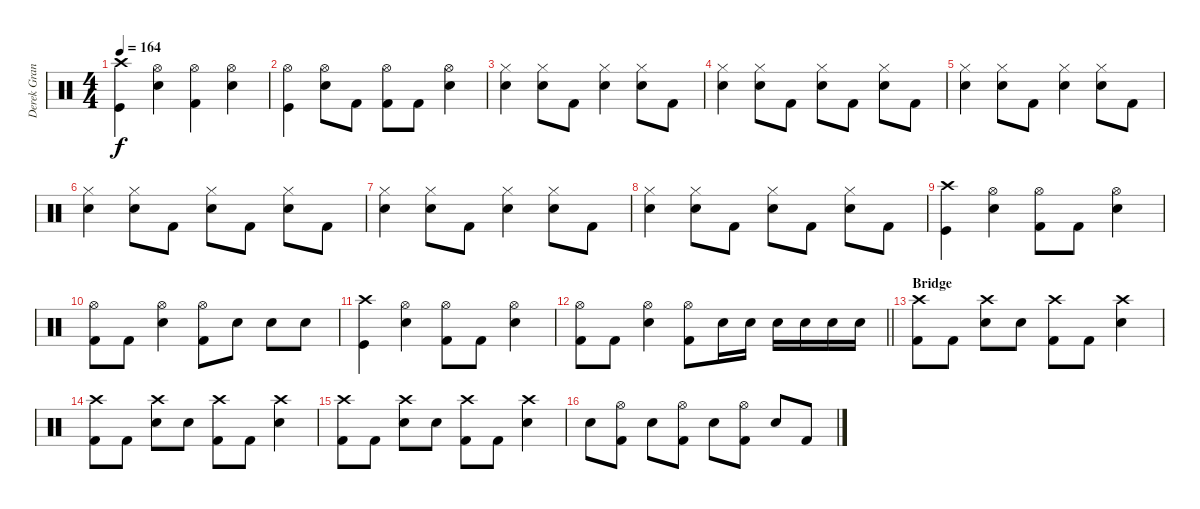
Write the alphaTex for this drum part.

\track ("Derek Grant - Drums" "Derek Gran") {instrument percussion}
\staff {score}
\articulation defaults
\ts (4 4)
\tempo 164
\clef neutral
\ks c
("Crash high (hit)" "Kick (hit)").4{dy f} ("Snare (hit) 2" "Hi-Hat (open)").4 ("Kick (hit) 2" "Hi-Hat (open)").4 ("Snare (hit) 2" "Hi-Hat (open)").4 |
("Hi-Hat (open)" "Kick (hit)").4 ("Snare (hit) 2" "Hi-Hat (open)").8 "Kick (hit) 2".8 ("Kick (hit) 2" "Hi-Hat (open)").8 "Kick (hit) 2".8 ("Snare (hit) 2" "Hi-Hat (open)").4 |
("Hi-Hat (closed)" "Snare (hit) 2").4 ("Hi-Hat (closed)" "Snare (hit) 2").8 "Kick (hit) 2".8 ("Hi-Hat (closed)" "Snare (hit) 2").4 ("Hi-Hat (closed)" "Snare (hit) 2").8 "Kick (hit) 2".8 |
("Hi-Hat (closed)" "Snare (hit) 2").4 ("Hi-Hat (closed)" "Snare (hit) 2").8 "Kick (hit) 2".8 ("Hi-Hat (closed)" "Snare (hit) 2").8 "Kick (hit) 2".8 ("Hi-Hat (closed)" "Snare (hit) 2").8 "Kick (hit) 2".8 |
("Hi-Hat (closed)" "Snare (hit) 2").4 ("Hi-Hat (closed)" "Snare (hit) 2").8 "Kick (hit) 2".8 ("Hi-Hat (closed)" "Snare (hit) 2").4 ("Hi-Hat (closed)" "Snare (hit) 2").8 "Kick (hit) 2".8 |
("Hi-Hat (closed)" "Snare (hit) 2").4 ("Hi-Hat (closed)" "Snare (hit) 2").8 "Kick (hit) 2".8 ("Hi-Hat (closed)" "Snare (hit) 2").8 "Kick (hit) 2".8 ("Hi-Hat (closed)" "Snare (hit) 2").8 "Kick (hit) 2".8 |
("Hi-Hat (closed)" "Snare (hit) 2").4 ("Hi-Hat (closed)" "Snare (hit) 2").8 "Kick (hit) 2".8 ("Hi-Hat (closed)" "Snare (hit) 2").4 ("Hi-Hat (closed)" "Snare (hit) 2").8 "Kick (hit) 2".8 |
("Hi-Hat (closed)" "Snare (hit) 2").4 ("Hi-Hat (closed)" "Snare (hit) 2").8 "Kick (hit) 2".8 ("Hi-Hat (closed)" "Snare (hit) 2").8 "Kick (hit) 2".8 ("Hi-Hat (closed)" "Snare (hit) 2").8 "Kick (hit) 2".8 |
("Crash high (hit)" "Kick (hit)").4 ("Snare (hit) 2" "Hi-Hat (open)").4 ("Kick (hit) 2" "Hi-Hat (open)").8 "Kick (hit) 2".8 ("Snare (hit) 2" "Hi-Hat (open)").4 |
("Kick (hit) 2" "Hi-Hat (open)").8 "Kick (hit) 2".8 ("Snare (hit) 2" "Hi-Hat (open)").4 ("Kick (hit) 2" "Hi-Hat (open)").8 "Snare (hit) 2".8 "Snare (hit) 2".8 "Snare (hit) 2".8 |
("Crash high (hit)" "Kick (hit)").4 ("Snare (hit) 2" "Hi-Hat (open)").4 ("Kick (hit) 2" "Hi-Hat (open)").8 "Kick (hit) 2".8 ("Snare (hit) 2" "Hi-Hat (open)").4 |
\barLineRight lightlight
("Kick (hit) 2" "Hi-Hat (open)").8 "Kick (hit) 2".8 ("Snare (hit) 2" "Hi-Hat (open)").4 ("Kick (hit) 2" "Hi-Hat (open)").8 "Snare (hit) 2".16 "Snare (hit) 2".16 "Snare (hit) 2".16 "Snare (hit) 2".16 "Snare (hit) 2".16 "Snare (hit) 2".16 |
\section ("" "Bridge")
("Kick (hit) 2" "Crash high (hit)").8 "Kick (hit) 2".8 ("Snare (hit) 2" "Crash high (hit)").8 "Snare (hit) 2".8 ("Kick (hit) 2" "Crash high (hit)").8 "Kick (hit) 2".8 ("Snare (hit) 2" "Crash high (hit)").4 |
("Kick (hit) 2" "Crash high (hit)").8 "Kick (hit) 2".8 ("Snare (hit) 2" "Crash high (hit)").8 "Snare (hit) 2".8 ("Kick (hit) 2" "Crash high (hit)").8 "Kick (hit) 2".8 ("Snare (hit) 2" "Crash high (hit)").4 |
("Kick (hit) 2" "Crash high (hit)").8 "Kick (hit) 2".8 ("Snare (hit) 2" "Crash high (hit)").8 "Snare (hit) 2".8 ("Kick (hit) 2" "Crash high (hit)").8 "Kick (hit) 2".8 ("Snare (hit) 2" "Crash high (hit)").4 |
"Snare (hit) 2".8 ("Kick (hit) 2" "Hi-Hat (open)").8 "Snare (hit) 2".8 ("Kick (hit) 2" "Hi-Hat (open)").8 "Snare (hit) 2".8 ("Kick (hit) 2" "Hi-Hat (open)").8 "Snare (hit) 2".8 "Kick (hit) 2".8
